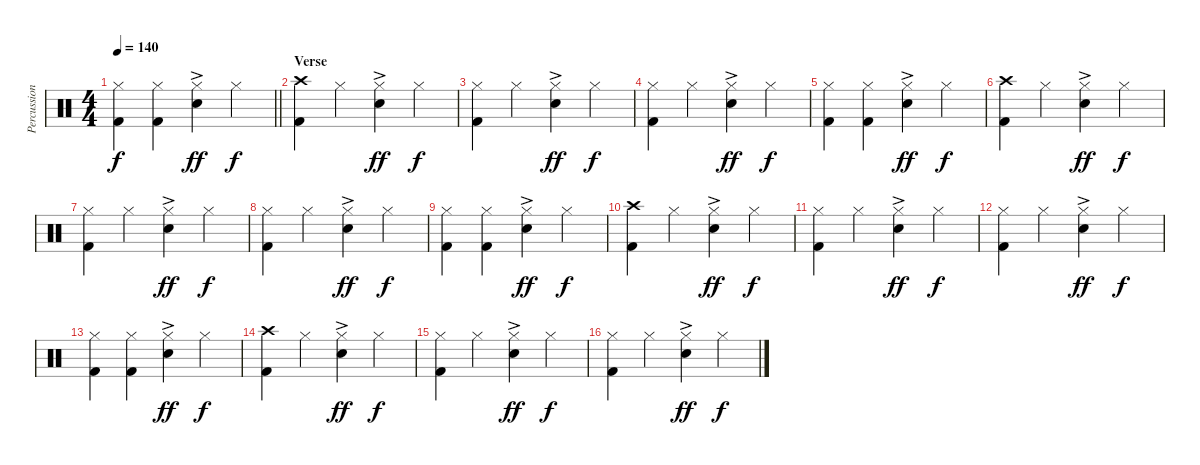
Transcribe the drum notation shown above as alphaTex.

\track ("Percussion" "Percussion") {instrument percussion}
\staff {score}
\articulation defaults
\ts (4 4)
\tempo 140
\clef neutral
\barLineRight lightlight
\ks c
("Hi-Hat (closed)" "Kick (hit) 2").4{dy f} ("Hi-Hat (closed)" "Kick (hit) 2").4 ("Hi-Hat (closed)" "Electric Snare (hit)"{ac}).4{dy ff} "Hi-Hat (closed)".4{dy f} |
\section ("" "Verse")
("Crash high (hit)" "Kick (hit) 2").4 "Hi-Hat (closed)".4 ("Hi-Hat (closed)" "Electric Snare (hit)"{ac}).4{dy ff} "Hi-Hat (closed)".4{dy f} |
("Hi-Hat (closed)" "Kick (hit) 2").4 "Hi-Hat (closed)".4 ("Hi-Hat (closed)" "Electric Snare (hit)"{ac}).4{dy ff} "Hi-Hat (closed)".4{dy f} |
("Hi-Hat (closed)" "Kick (hit) 2").4 "Hi-Hat (closed)".4 ("Hi-Hat (closed)" "Electric Snare (hit)"{ac}).4{dy ff} "Hi-Hat (closed)".4{dy f} |
("Hi-Hat (closed)" "Kick (hit) 2").4 ("Hi-Hat (closed)" "Kick (hit) 2").4 ("Hi-Hat (closed)" "Electric Snare (hit)"{ac}).4{dy ff} "Hi-Hat (closed)".4{dy f} |
("Crash high (hit)" "Kick (hit) 2").4 "Hi-Hat (closed)".4 ("Hi-Hat (closed)" "Electric Snare (hit)"{ac}).4{dy ff} "Hi-Hat (closed)".4{dy f} |
("Hi-Hat (closed)" "Kick (hit) 2").4 "Hi-Hat (closed)".4 ("Hi-Hat (closed)" "Electric Snare (hit)"{ac}).4{dy ff} "Hi-Hat (closed)".4{dy f} |
("Hi-Hat (closed)" "Kick (hit) 2").4 "Hi-Hat (closed)".4 ("Hi-Hat (closed)" "Electric Snare (hit)"{ac}).4{dy ff} "Hi-Hat (closed)".4{dy f} |
("Hi-Hat (closed)" "Kick (hit) 2").4 ("Hi-Hat (closed)" "Kick (hit) 2").4 ("Hi-Hat (closed)" "Electric Snare (hit)"{ac}).4{dy ff} "Hi-Hat (closed)".4{dy f} |
("Crash high (hit)" "Kick (hit) 2").4 "Hi-Hat (closed)".4 ("Hi-Hat (closed)" "Electric Snare (hit)"{ac}).4{dy ff} "Hi-Hat (closed)".4{dy f} |
("Hi-Hat (closed)" "Kick (hit) 2").4 "Hi-Hat (closed)".4 ("Hi-Hat (closed)" "Electric Snare (hit)"{ac}).4{dy ff} "Hi-Hat (closed)".4{dy f} |
("Hi-Hat (closed)" "Kick (hit) 2").4 "Hi-Hat (closed)".4 ("Hi-Hat (closed)" "Electric Snare (hit)"{ac}).4{dy ff} "Hi-Hat (closed)".4{dy f} |
("Hi-Hat (closed)" "Kick (hit) 2").4 ("Hi-Hat (closed)" "Kick (hit) 2").4 ("Hi-Hat (closed)" "Electric Snare (hit)"{ac}).4{dy ff} "Hi-Hat (closed)".4{dy f} |
("Crash high (hit)" "Kick (hit) 2").4 "Hi-Hat (closed)".4 ("Hi-Hat (closed)" "Electric Snare (hit)"{ac}).4{dy ff} "Hi-Hat (closed)".4{dy f} |
("Hi-Hat (closed)" "Kick (hit) 2").4 "Hi-Hat (closed)".4 ("Hi-Hat (closed)" "Electric Snare (hit)"{ac}).4{dy ff} "Hi-Hat (closed)".4{dy f} |
("Hi-Hat (closed)" "Kick (hit) 2").4 "Hi-Hat (closed)".4 ("Hi-Hat (closed)" "Electric Snare (hit)"{ac}).4{dy ff} "Hi-Hat (closed)".4{dy f}
